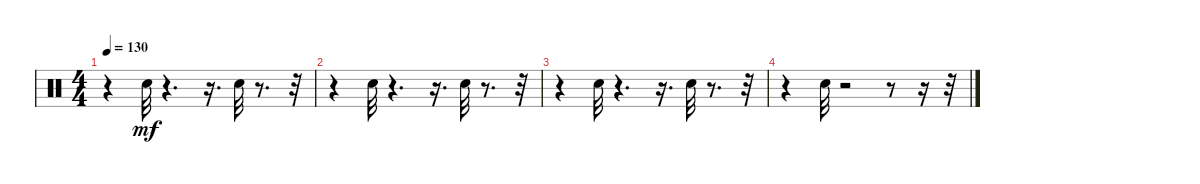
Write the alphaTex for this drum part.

\track "" {instrument percussion}
\staff {score}
\articulation defaults
\ts (4 4)
\tempo 130
\clef neutral
\ks c
r.4{dy mf} "Electric Snare (hit)".32 r.4{d} r.16{d} "Electric Snare (hit)".32 r.8{d} r.32 |
r.4 "Electric Snare (hit)".32 r.4{d} r.16{d} "Electric Snare (hit)".32 r.8{d} r.32 |
r.4 "Electric Snare (hit)".32 r.4{d} r.16{d} "Electric Snare (hit)".32 r.8{d} r.32 |
r.4 "Electric Snare (hit)".32 r.2 r.8 r.16 r.32
